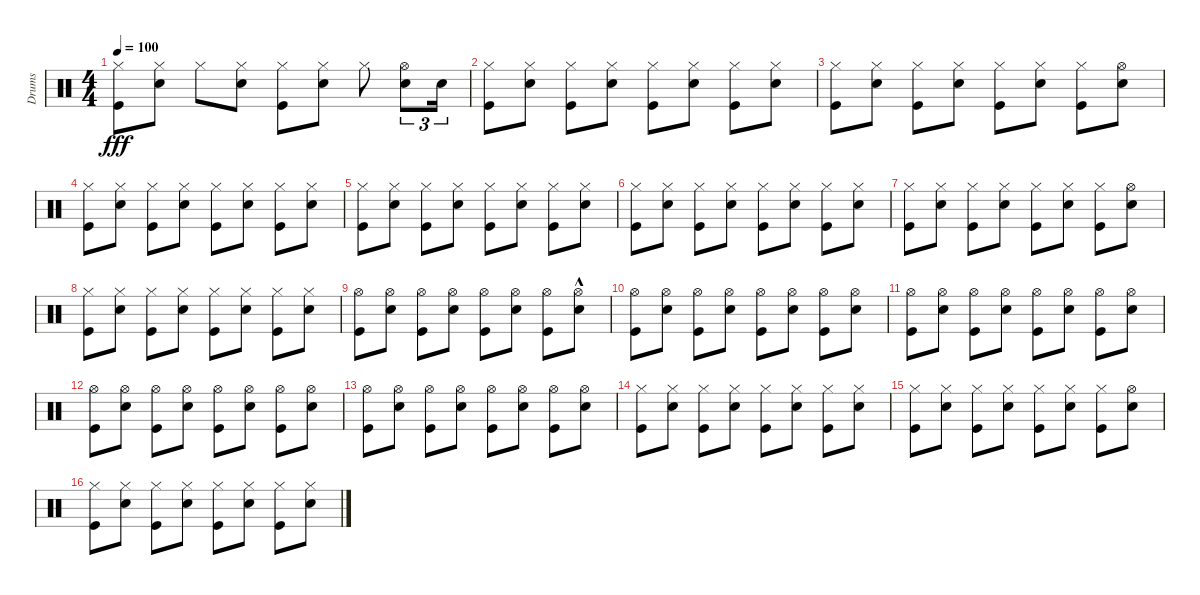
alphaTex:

\track ("Drums" "Drums") {instrument percussion}
\staff {score}
\articulation defaults
\ts (4 4)
\tempo 100
\clef neutral
\ks c
("Hi-Hat (closed)" "Kick (hit)").8{dy fff} ("Hi-Hat (closed)" "Snare (hit) 2").8 "Hi-Hat (closed)".8 ("Hi-Hat (closed)" "Snare (hit) 2").8 ("Hi-Hat (closed)" "Kick (hit)").8 ("Hi-Hat (closed)" "Snare (hit) 2").8 "Hi-Hat (closed)".8 ("Hi-Hat (open)" "Snare (hit) 2").8{tu (3 2)} "Snare (hit) 2".16{tu (3 2)} |
("Hi-Hat (closed)" "Kick (hit)").8 ("Hi-Hat (closed)" "Snare (hit) 2").8 ("Hi-Hat (closed)" "Kick (hit)").8 ("Hi-Hat (closed)" "Snare (hit) 2").8 ("Hi-Hat (closed)" "Kick (hit)").8 ("Hi-Hat (closed)" "Snare (hit) 2").8 ("Hi-Hat (closed)" "Kick (hit)").8 ("Hi-Hat (closed)" "Snare (hit) 2").8 |
("Hi-Hat (closed)" "Kick (hit)").8 ("Hi-Hat (closed)" "Snare (hit) 2").8 ("Hi-Hat (closed)" "Kick (hit)").8 ("Hi-Hat (closed)" "Snare (hit) 2").8 ("Hi-Hat (closed)" "Kick (hit)").8 ("Hi-Hat (closed)" "Snare (hit) 2").8 ("Hi-Hat (closed)" "Kick (hit)").8 ("Hi-Hat (open)" "Snare (hit) 2").8 |
("Hi-Hat (closed)" "Kick (hit)").8 ("Hi-Hat (closed)" "Snare (hit) 2").8 ("Hi-Hat (closed)" "Kick (hit)").8 ("Hi-Hat (closed)" "Snare (hit) 2").8 ("Hi-Hat (closed)" "Kick (hit)").8 ("Hi-Hat (closed)" "Snare (hit) 2").8 ("Hi-Hat (closed)" "Kick (hit)").8 ("Hi-Hat (closed)" "Snare (hit) 2").8 |
("Hi-Hat (closed)" "Kick (hit)").8 ("Hi-Hat (closed)" "Snare (hit) 2").8 ("Hi-Hat (closed)" "Kick (hit)").8 ("Hi-Hat (closed)" "Snare (hit) 2").8 ("Hi-Hat (closed)" "Kick (hit)").8 ("Hi-Hat (closed)" "Snare (hit) 2").8 ("Hi-Hat (closed)" "Kick (hit)").8 ("Hi-Hat (closed)" "Snare (hit) 2").8 |
("Hi-Hat (closed)" "Kick (hit)").8 ("Hi-Hat (closed)" "Snare (hit) 2").8 ("Hi-Hat (closed)" "Kick (hit)").8 ("Hi-Hat (closed)" "Snare (hit) 2").8 ("Hi-Hat (closed)" "Kick (hit)").8 ("Hi-Hat (closed)" "Snare (hit) 2").8 ("Hi-Hat (closed)" "Kick (hit)").8 ("Hi-Hat (closed)" "Snare (hit) 2").8 |
("Hi-Hat (closed)" "Kick (hit)").8 ("Hi-Hat (closed)" "Snare (hit) 2").8 ("Hi-Hat (closed)" "Kick (hit)").8 ("Hi-Hat (closed)" "Snare (hit) 2").8 ("Hi-Hat (closed)" "Kick (hit)").8 ("Hi-Hat (closed)" "Snare (hit) 2").8 ("Hi-Hat (closed)" "Kick (hit)").8 ("Hi-Hat (open)" "Snare (hit) 2").8 |
("Hi-Hat (closed)" "Kick (hit)").8 ("Hi-Hat (closed)" "Snare (hit) 2").8 ("Hi-Hat (closed)" "Kick (hit)").8 ("Hi-Hat (closed)" "Snare (hit) 2").8 ("Hi-Hat (closed)" "Kick (hit)").8 ("Hi-Hat (closed)" "Snare (hit) 2").8 ("Hi-Hat (closed)" "Kick (hit)").8 ("Hi-Hat (closed)" "Snare (hit) 2").8 |
("Hi-Hat (open)" "Kick (hit)").8 ("Hi-Hat (open)" "Snare (hit) 2").8 ("Hi-Hat (open)" "Kick (hit)").8 ("Hi-Hat (open)" "Snare (hit) 2").8 ("Hi-Hat (open)" "Kick (hit)").8 ("Hi-Hat (open)" "Snare (hit) 2").8 ("Hi-Hat (open)" "Kick (hit)").8 ("Hi-Hat (open)"{hac} "Snare (hit) 2").8 |
("Hi-Hat (open)" "Kick (hit)").8 ("Hi-Hat (open)" "Snare (hit) 2").8 ("Hi-Hat (open)" "Kick (hit)").8 ("Hi-Hat (open)" "Snare (hit) 2").8 ("Hi-Hat (open)" "Kick (hit)").8 ("Hi-Hat (open)" "Snare (hit) 2").8 ("Hi-Hat (open)" "Kick (hit)").8 ("Hi-Hat (open)" "Snare (hit) 2").8 |
("Hi-Hat (open)" "Kick (hit)").8 ("Hi-Hat (open)" "Snare (hit) 2").8 ("Hi-Hat (open)" "Kick (hit)").8 ("Hi-Hat (open)" "Snare (hit) 2").8 ("Hi-Hat (open)" "Kick (hit)").8 ("Hi-Hat (open)" "Snare (hit) 2").8 ("Hi-Hat (open)" "Kick (hit)").8 ("Hi-Hat (open)" "Snare (hit) 2").8 |
("Hi-Hat (open)" "Kick (hit)").8 ("Hi-Hat (open)" "Snare (hit) 2").8 ("Hi-Hat (open)" "Kick (hit)").8 ("Hi-Hat (open)" "Snare (hit) 2").8 ("Hi-Hat (open)" "Kick (hit)").8 ("Hi-Hat (open)" "Snare (hit) 2").8 ("Hi-Hat (open)" "Kick (hit)").8 ("Hi-Hat (open)" "Snare (hit) 2").8 |
("Hi-Hat (open)" "Kick (hit)").8 ("Hi-Hat (open)" "Snare (hit) 2").8 ("Hi-Hat (open)" "Kick (hit)").8 ("Hi-Hat (open)" "Snare (hit) 2").8 ("Hi-Hat (open)" "Kick (hit)").8 ("Hi-Hat (open)" "Snare (hit) 2").8 ("Hi-Hat (open)" "Kick (hit)").8 ("Hi-Hat (open)" "Snare (hit) 2").8 |
("Hi-Hat (closed)" "Kick (hit)").8 ("Hi-Hat (closed)" "Snare (hit) 2").8 ("Hi-Hat (closed)" "Kick (hit)").8 ("Hi-Hat (closed)" "Snare (hit) 2").8 ("Hi-Hat (closed)" "Kick (hit)").8 ("Hi-Hat (closed)" "Snare (hit) 2").8 ("Hi-Hat (closed)" "Kick (hit)").8 ("Hi-Hat (closed)" "Snare (hit) 2").8 |
("Hi-Hat (closed)" "Kick (hit)").8 ("Hi-Hat (closed)" "Snare (hit) 2").8 ("Hi-Hat (closed)" "Kick (hit)").8 ("Hi-Hat (closed)" "Snare (hit) 2").8 ("Hi-Hat (closed)" "Kick (hit)").8 ("Hi-Hat (closed)" "Snare (hit) 2").8 ("Hi-Hat (closed)" "Kick (hit)").8 ("Hi-Hat (open)" "Snare (hit) 2").8 |
("Hi-Hat (closed)" "Kick (hit)").8 ("Hi-Hat (closed)" "Snare (hit) 2").8 ("Hi-Hat (closed)" "Kick (hit)").8 ("Hi-Hat (closed)" "Snare (hit) 2").8 ("Hi-Hat (closed)" "Kick (hit)").8 ("Hi-Hat (closed)" "Snare (hit) 2").8 ("Hi-Hat (closed)" "Kick (hit)").8 ("Hi-Hat (closed)" "Snare (hit) 2").8
